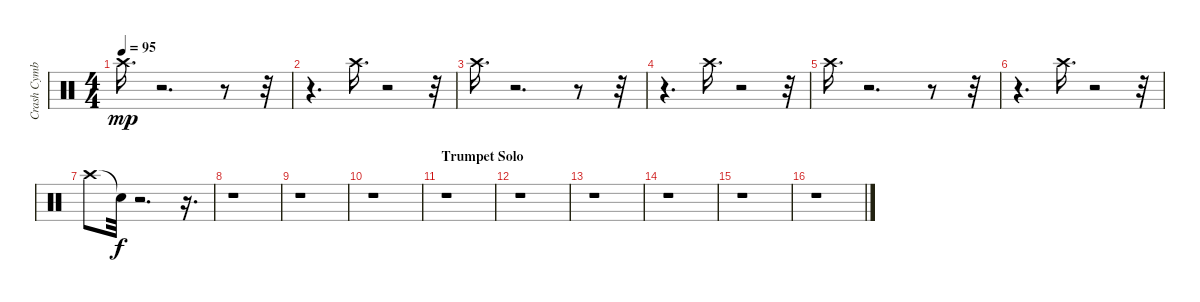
\track ("Crash Cymbal" "Crash Cymb") {instrument percussion}
\staff {score}
\articulation defaults
\ts (4 4)
\tempo 95
\clef neutral
\ks c "Crash high (hit)".16{d dy mp}
r.2{d} r.8 r.32 |
r.4{d} "Crash high (hit)".16{d} r.2 r.32 |
"Crash high (hit)".16{d} r.2{d} r.8 r.32 |
r.4{d} "Crash high (hit)".16{d} r.2 r.32 |
"Crash high (hit)".16{d} r.2{d} r.8 r.32 |
r.4{d} "Crash high (hit)".16{d} r.2 r.32 |
"Crash high (hit)".8 "Snare (hit)"{t}.32{dy f} r.2{d} r.16{d} |
r.1 |
r.1 |
r.1 |
\section ("" "Trumpet Solo")
r.1 |
r.1 |
r.1 |
r.1 |
r.1 |
r.1
